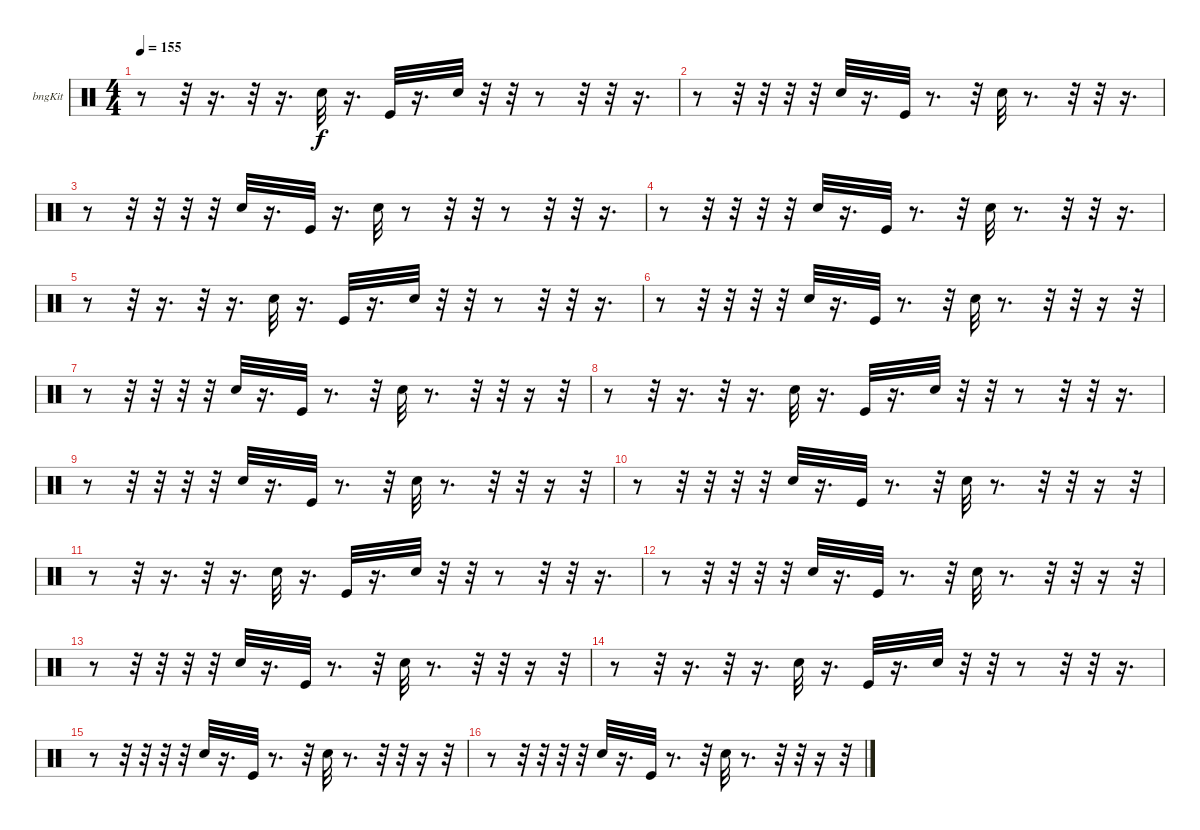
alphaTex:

\bracketExtendMode groupsimilarinstruments
\firstSystemTrackNameOrientation horizontal
\otherSystemsTrackNameOrientation horizontal
\track ("Е. Кулаков" "bngKit") {instrument percussion}
\staff {score}
\articulation defaults
\ts (4 4)
\tempo 155
\clef neutral
\ks c
r.8{dy f} r.32 r.16{d} r.32 r.16{d} "Snare (hit) 2".32 r.16{d} "Kick (hit)".32 r.16{d} "Snare (hit) 2".32 r.32 r.32 r.8 r.32 r.32 r.16{d} |
r.8 r.32 r.32 r.32 r.32 "Snare (hit) 2".32 r.16{d} "Kick (hit)".32 r.8{d} r.32 "Snare (hit) 2".32 r.8{d} r.32 r.32 r.16{d} |
r.8 r.32 r.32 r.32 r.32 "Snare (hit) 2".32 r.16{d} "Kick (hit)".32 r.16{d} "Snare (hit) 2".32 r.8 r.32 r.32 r.8 r.32 r.32 r.16{d} |
r.8 r.32 r.32 r.32 r.32 "Snare (hit) 2".32 r.16{d} "Kick (hit)".32 r.8{d} r.32 "Snare (hit) 2".32 r.8{d} r.32 r.32 r.16{d} |
r.8 r.32 r.16{d} r.32 r.16{d} "Snare (hit) 2".32 r.16{d} "Kick (hit)".32 r.16{d} "Snare (hit) 2".32 r.32 r.32 r.8 r.32 r.32 r.16{d} |
r.8 r.32 r.32 r.32 r.32 "Snare (hit) 2".32 r.16{d} "Kick (hit)".32 r.8{d} r.32 "Snare (hit) 2".32 r.8{d} r.32 r.32 r.16 r.32 |
r.8 r.32 r.32 r.32 r.32 "Snare (hit) 2".32 r.16{d} "Kick (hit)".32 r.8{d} r.32 "Snare (hit) 2".32 r.8{d} r.32 r.32 r.16 r.32 |
r.8 r.32 r.16{d} r.32 r.16{d} "Snare (hit) 2".32 r.16{d} "Kick (hit)".32 r.16{d} "Snare (hit) 2".32 r.32 r.32 r.8 r.32 r.32 r.16{d} |
r.8 r.32 r.32 r.32 r.32 "Snare (hit) 2".32 r.16{d} "Kick (hit)".32 r.8{d} r.32 "Snare (hit) 2".32 r.8{d} r.32 r.32 r.16 r.32 |
r.8 r.32 r.32 r.32 r.32 "Snare (hit) 2".32 r.16{d} "Kick (hit)".32 r.8{d} r.32 "Snare (hit) 2".32 r.8{d} r.32 r.32 r.16 r.32 |
r.8 r.32 r.16{d} r.32 r.16{d} "Snare (hit) 2".32 r.16{d} "Kick (hit)".32 r.16{d} "Snare (hit) 2".32 r.32 r.32 r.8 r.32 r.32 r.16{d} |
r.8 r.32 r.32 r.32 r.32 "Snare (hit) 2".32 r.16{d} "Kick (hit)".32 r.8{d} r.32 "Snare (hit) 2".32 r.8{d} r.32 r.32 r.16 r.32 |
r.8 r.32 r.32 r.32 r.32 "Snare (hit) 2".32 r.16{d} "Kick (hit)".32 r.8{d} r.32 "Snare (hit) 2".32 r.8{d} r.32 r.32 r.16 r.32 |
r.8 r.32 r.16{d} r.32 r.16{d} "Snare (hit) 2".32 r.16{d} "Kick (hit)".32 r.16{d} "Snare (hit) 2".32 r.32 r.32 r.8 r.32 r.32 r.16{d} |
r.8 r.32 r.32 r.32 r.32 "Snare (hit) 2".32 r.16{d} "Kick (hit)".32 r.8{d} r.32 "Snare (hit) 2".32 r.8{d} r.32 r.32 r.16 r.32 |
r.8 r.32 r.32 r.32 r.32 "Snare (hit) 2".32 r.16{d} "Kick (hit)".32 r.8{d} r.32 "Snare (hit) 2".32 r.8{d} r.32 r.32 r.16 r.32
